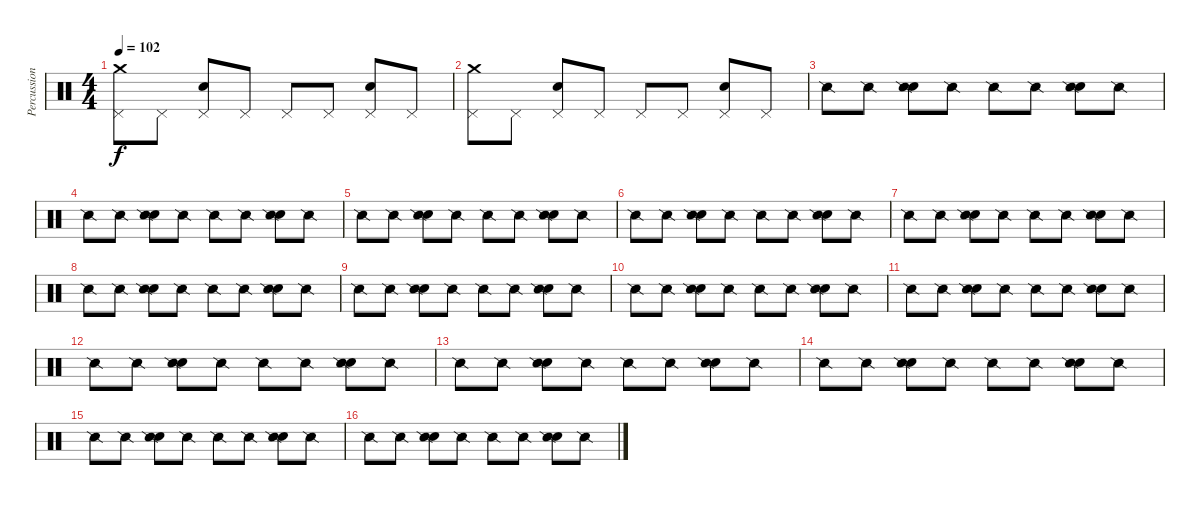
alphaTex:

\track ("Percussion" "Percussion") {instrument percussion}
\staff {score}
\articulation defaults
\ts (4 4)
\tempo 102
\clef neutral
\ks c
("Crash medium (hit)" "Pedal Hi-Hat (hit)").8{dy f} "Pedal Hi-Hat (hit)".8 ("Electric Snare (hit)" "Pedal Hi-Hat (hit)").8 "Pedal Hi-Hat (hit)".8 "Pedal Hi-Hat (hit)".8 "Pedal Hi-Hat (hit)".8 ("Electric Snare (hit)" "Pedal Hi-Hat (hit)").8 "Pedal Hi-Hat (hit)".8 |
("Crash medium (hit)" "Pedal Hi-Hat (hit)").8 "Pedal Hi-Hat (hit)".8 ("Electric Snare (hit)" "Pedal Hi-Hat (hit)").8 "Pedal Hi-Hat (hit)".8 "Pedal Hi-Hat (hit)".8 "Pedal Hi-Hat (hit)".8 ("Electric Snare (hit)" "Pedal Hi-Hat (hit)").8 "Pedal Hi-Hat (hit)".8 |
"Snare (side stick) 2".8 "Snare (side stick) 2".8 ("Electric Snare (hit)" "Snare (side stick) 2").8 "Snare (side stick) 2".8 "Snare (side stick) 2".8 "Snare (side stick) 2".8 ("Electric Snare (hit)" "Snare (side stick) 2").8 "Snare (side stick) 2".8 |
"Snare (side stick) 2".8 "Snare (side stick) 2".8 ("Electric Snare (hit)" "Snare (side stick) 2").8 "Snare (side stick) 2".8 "Snare (side stick) 2".8 "Snare (side stick) 2".8 ("Electric Snare (hit)" "Snare (side stick) 2").8 "Snare (side stick) 2".8 |
"Snare (side stick) 2".8 "Snare (side stick) 2".8 ("Electric Snare (hit)" "Snare (side stick) 2").8 "Snare (side stick) 2".8 "Snare (side stick) 2".8 "Snare (side stick) 2".8 ("Electric Snare (hit)" "Snare (side stick) 2").8 "Snare (side stick) 2".8 |
"Snare (side stick) 2".8 "Snare (side stick) 2".8 ("Electric Snare (hit)" "Snare (side stick) 2").8 "Snare (side stick) 2".8 "Snare (side stick) 2".8 "Snare (side stick) 2".8 ("Electric Snare (hit)" "Snare (side stick) 2").8 "Snare (side stick) 2".8 |
"Snare (side stick) 2".8 "Snare (side stick) 2".8 ("Electric Snare (hit)" "Snare (side stick) 2").8 "Snare (side stick) 2".8 "Snare (side stick) 2".8 "Snare (side stick) 2".8 ("Electric Snare (hit)" "Snare (side stick) 2").8 "Snare (side stick) 2".8 |
"Snare (side stick) 2".8 "Snare (side stick) 2".8 ("Electric Snare (hit)" "Snare (side stick) 2").8 "Snare (side stick) 2".8 "Snare (side stick) 2".8 "Snare (side stick) 2".8 ("Electric Snare (hit)" "Snare (side stick) 2").8 "Snare (side stick) 2".8 |
"Snare (side stick) 2".8 "Snare (side stick) 2".8 ("Electric Snare (hit)" "Snare (side stick) 2").8 "Snare (side stick) 2".8 "Snare (side stick) 2".8 "Snare (side stick) 2".8 ("Electric Snare (hit)" "Snare (side stick) 2").8 "Snare (side stick) 2".8 |
"Snare (side stick) 2".8 "Snare (side stick) 2".8 ("Electric Snare (hit)" "Snare (side stick) 2").8 "Snare (side stick) 2".8 "Snare (side stick) 2".8 "Snare (side stick) 2".8 ("Electric Snare (hit)" "Snare (side stick) 2").8 "Snare (side stick) 2".8 |
"Snare (side stick) 2".8 "Snare (side stick) 2".8 ("Electric Snare (hit)" "Snare (side stick) 2").8 "Snare (side stick) 2".8 "Snare (side stick) 2".8 "Snare (side stick) 2".8 ("Electric Snare (hit)" "Snare (side stick) 2").8 "Snare (side stick) 2".8 |
"Snare (side stick) 2".8 "Snare (side stick) 2".8 ("Electric Snare (hit)" "Snare (side stick) 2").8 "Snare (side stick) 2".8 "Snare (side stick) 2".8 "Snare (side stick) 2".8 ("Electric Snare (hit)" "Snare (side stick) 2").8 "Snare (side stick) 2".8 |
"Snare (side stick) 2".8 "Snare (side stick) 2".8 ("Electric Snare (hit)" "Snare (side stick) 2").8 "Snare (side stick) 2".8 "Snare (side stick) 2".8 "Snare (side stick) 2".8 ("Electric Snare (hit)" "Snare (side stick) 2").8 "Snare (side stick) 2".8 |
"Snare (side stick) 2".8 "Snare (side stick) 2".8 ("Electric Snare (hit)" "Snare (side stick) 2").8 "Snare (side stick) 2".8 "Snare (side stick) 2".8 "Snare (side stick) 2".8 ("Electric Snare (hit)" "Snare (side stick) 2").8 "Snare (side stick) 2".8 |
"Snare (side stick) 2".8 "Snare (side stick) 2".8 ("Electric Snare (hit)" "Snare (side stick) 2").8 "Snare (side stick) 2".8 "Snare (side stick) 2".8 "Snare (side stick) 2".8 ("Electric Snare (hit)" "Snare (side stick) 2").8 "Snare (side stick) 2".8 |
"Snare (side stick) 2".8 "Snare (side stick) 2".8 ("Electric Snare (hit)" "Snare (side stick) 2").8 "Snare (side stick) 2".8 "Snare (side stick) 2".8 "Snare (side stick) 2".8 ("Electric Snare (hit)" "Snare (side stick) 2").8 "Snare (side stick) 2".8
